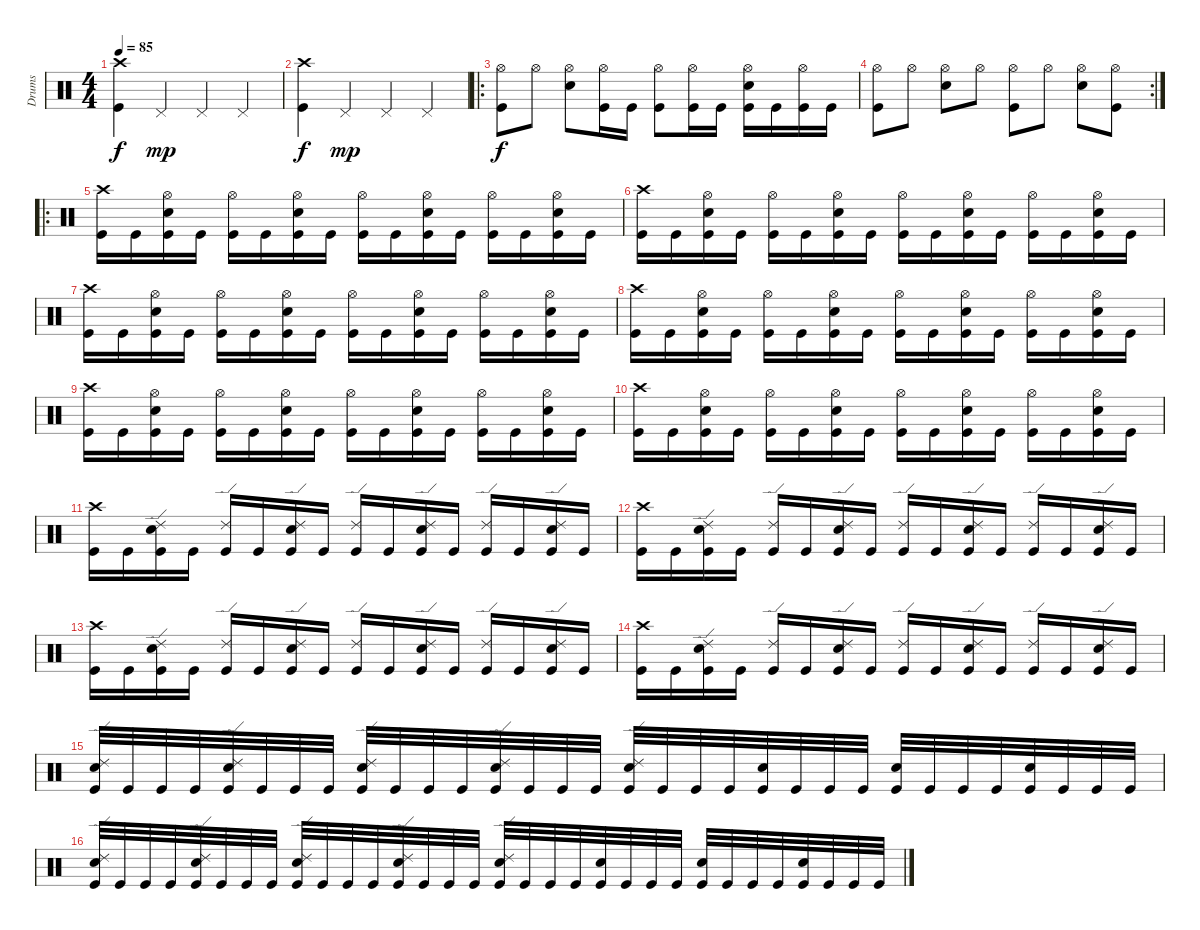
\track ("Drums" "Drums") {instrument percussion}
\staff {score}
\articulation defaults
\ts (4 4)
\tempo 85
\clef neutral
\ks c
("Crash high (hit)" "Kick (hit)").4{dy f} "Pedal Hi-Hat (hit)".4{dy mp} "Pedal Hi-Hat (hit)".4 "Pedal Hi-Hat (hit)".4 |
("Crash high (hit)" "Kick (hit)").4{dy f} "Pedal Hi-Hat (hit)".4{dy mp} "Pedal Hi-Hat (hit)".4 "Pedal Hi-Hat (hit)".4 |
\ro
("Hi-Hat (open)" "Kick (hit)").8{dy f} "Hi-Hat (open)".8 ("Hi-Hat (open)" "Snare (hit) 2").8 ("Hi-Hat (open)" "Kick (hit)").16 "Kick (hit)".16 ("Hi-Hat (open)" "Kick (hit)").8 ("Hi-Hat (open)" "Kick (hit)").16 "Kick (hit)".16 ("Hi-Hat (open)" "Snare (hit) 2" "Kick (hit)").16 "Kick (hit)".16 ("Hi-Hat (open)" "Kick (hit)").16 "Kick (hit)".16 |
\rc 2
("Hi-Hat (open)" "Kick (hit)").8 "Hi-Hat (open)".8 ("Hi-Hat (open)" "Snare (hit) 2").8 "Hi-Hat (open)".8 ("Hi-Hat (open)" "Kick (hit)").8 "Hi-Hat (open)".8 ("Hi-Hat (open)" "Snare (hit) 2").8 ("Hi-Hat (open)" "Kick (hit)").8 |
\ro
("Crash high (hit)" "Kick (hit)").16 "Kick (hit)".16 ("Hi-Hat (open)" "Snare (hit) 2" "Kick (hit)").16 "Kick (hit)".16 ("Hi-Hat (open)" "Kick (hit)").16 "Kick (hit)".16 ("Hi-Hat (open)" "Snare (hit) 2" "Kick (hit)").16 "Kick (hit)".16 ("Hi-Hat (open)" "Kick (hit)").16 "Kick (hit)".16 ("Hi-Hat (open)" "Snare (hit) 2" "Kick (hit)").16 "Kick (hit)".16 ("Hi-Hat (open)" "Kick (hit)").16 "Kick (hit)".16 ("Hi-Hat (open)" "Snare (hit) 2" "Kick (hit)").16 "Kick (hit)".16 |
("Crash high (hit)" "Kick (hit)").16 "Kick (hit)".16 ("Hi-Hat (open)" "Snare (hit) 2" "Kick (hit)").16 "Kick (hit)".16 ("Hi-Hat (open)" "Kick (hit)").16 "Kick (hit)".16 ("Hi-Hat (open)" "Snare (hit) 2" "Kick (hit)").16 "Kick (hit)".16 ("Hi-Hat (open)" "Kick (hit)").16 "Kick (hit)".16 ("Hi-Hat (open)" "Snare (hit) 2" "Kick (hit)").16 "Kick (hit)".16 ("Hi-Hat (open)" "Kick (hit)").16 "Kick (hit)".16 ("Hi-Hat (open)" "Snare (hit) 2" "Kick (hit)").16 "Kick (hit)".16 |
("Crash high (hit)" "Kick (hit)").16 "Kick (hit)".16 ("Hi-Hat (open)" "Snare (hit) 2" "Kick (hit)").16 "Kick (hit)".16 ("Hi-Hat (open)" "Kick (hit)").16 "Kick (hit)".16 ("Hi-Hat (open)" "Snare (hit) 2" "Kick (hit)").16 "Kick (hit)".16 ("Hi-Hat (open)" "Kick (hit)").16 "Kick (hit)".16 ("Hi-Hat (open)" "Snare (hit) 2" "Kick (hit)").16 "Kick (hit)".16 ("Hi-Hat (open)" "Kick (hit)").16 "Kick (hit)".16 ("Hi-Hat (open)" "Snare (hit) 2" "Kick (hit)").16 "Kick (hit)".16 |
("Crash high (hit)" "Kick (hit)").16 "Kick (hit)".16 ("Hi-Hat (open)" "Snare (hit) 2" "Kick (hit)").16 "Kick (hit)".16 ("Hi-Hat (open)" "Kick (hit)").16 "Kick (hit)".16 ("Hi-Hat (open)" "Snare (hit) 2" "Kick (hit)").16 "Kick (hit)".16 ("Hi-Hat (open)" "Kick (hit)").16 "Kick (hit)".16 ("Hi-Hat (open)" "Snare (hit) 2" "Kick (hit)").16 "Kick (hit)".16 ("Hi-Hat (open)" "Kick (hit)").16 "Kick (hit)".16 ("Hi-Hat (open)" "Snare (hit) 2" "Kick (hit)").16 "Kick (hit)".16 |
("Crash high (hit)" "Kick (hit)").16 "Kick (hit)".16 ("Hi-Hat (open)" "Snare (hit) 2" "Kick (hit)").16 "Kick (hit)".16 ("Hi-Hat (open)" "Kick (hit)").16 "Kick (hit)".16 ("Hi-Hat (open)" "Snare (hit) 2" "Kick (hit)").16 "Kick (hit)".16 ("Hi-Hat (open)" "Kick (hit)").16 "Kick (hit)".16 ("Hi-Hat (open)" "Snare (hit) 2" "Kick (hit)").16 "Kick (hit)".16 ("Hi-Hat (open)" "Kick (hit)").16 "Kick (hit)".16 ("Hi-Hat (open)" "Snare (hit) 2" "Kick (hit)").16 "Kick (hit)".16 |
("Crash high (hit)" "Kick (hit)").16 "Kick (hit)".16 ("Hi-Hat (open)" "Snare (hit) 2" "Kick (hit)").16 "Kick (hit)".16 ("Hi-Hat (open)" "Kick (hit)").16 "Kick (hit)".16 ("Hi-Hat (open)" "Snare (hit) 2" "Kick (hit)").16 "Kick (hit)".16 ("Hi-Hat (open)" "Kick (hit)").16 "Kick (hit)".16 ("Hi-Hat (open)" "Snare (hit) 2" "Kick (hit)").16 "Kick (hit)".16 ("Hi-Hat (open)" "Kick (hit)").16 "Kick (hit)".16 ("Hi-Hat (open)" "Snare (hit) 2" "Kick (hit)").16 "Kick (hit)".16 |
("Crash high (hit)" "Kick (hit)").16 "Kick (hit)".16 ("Ride (edge) 2" "Snare (hit) 2" "Kick (hit)").16 "Kick (hit)".16 ("Ride (edge) 2" "Kick (hit)").16 "Kick (hit)".16 ("Ride (edge) 2" "Snare (hit) 2" "Kick (hit)").16 "Kick (hit)".16 ("Ride (edge) 2" "Kick (hit)").16 "Kick (hit)".16 ("Ride (edge) 2" "Snare (hit) 2" "Kick (hit)").16 "Kick (hit)".16 ("Ride (edge) 2" "Kick (hit)").16 "Kick (hit)".16 ("Ride (edge) 2" "Snare (hit) 2" "Kick (hit)").16 "Kick (hit)".16 |
("Crash high (hit)" "Kick (hit)").16 "Kick (hit)".16 ("Ride (edge) 2" "Snare (hit) 2" "Kick (hit)").16 "Kick (hit)".16 ("Ride (edge) 2" "Kick (hit)").16 "Kick (hit)".16 ("Ride (edge) 2" "Snare (hit) 2" "Kick (hit)").16 "Kick (hit)".16 ("Ride (edge) 2" "Kick (hit)").16 "Kick (hit)".16 ("Ride (edge) 2" "Snare (hit) 2" "Kick (hit)").16 "Kick (hit)".16 ("Ride (edge) 2" "Kick (hit)").16 "Kick (hit)".16 ("Ride (edge) 2" "Snare (hit) 2" "Kick (hit)").16 "Kick (hit)".16 |
("Crash high (hit)" "Kick (hit)").16 "Kick (hit)".16 ("Ride (edge) 2" "Snare (hit) 2" "Kick (hit)").16 "Kick (hit)".16 ("Ride (edge) 2" "Kick (hit)").16 "Kick (hit)".16 ("Ride (edge) 2" "Snare (hit) 2" "Kick (hit)").16 "Kick (hit)".16 ("Ride (edge) 2" "Kick (hit)").16 "Kick (hit)".16 ("Ride (edge) 2" "Snare (hit) 2" "Kick (hit)").16 "Kick (hit)".16 ("Ride (edge) 2" "Kick (hit)").16 "Kick (hit)".16 ("Ride (edge) 2" "Snare (hit) 2" "Kick (hit)").16 "Kick (hit)".16 |
("Crash high (hit)" "Kick (hit)").16 "Kick (hit)".16 ("Ride (edge) 2" "Snare (hit) 2" "Kick (hit)").16 "Kick (hit)".16 ("Ride (edge) 2" "Kick (hit)").16 "Kick (hit)".16 ("Ride (edge) 2" "Snare (hit) 2" "Kick (hit)").16 "Kick (hit)".16 ("Ride (edge) 2" "Kick (hit)").16 "Kick (hit)".16 ("Ride (edge) 2" "Snare (hit) 2" "Kick (hit)").16 "Kick (hit)".16 ("Ride (edge) 2" "Kick (hit)").16 "Kick (hit)".16 ("Ride (edge) 2" "Snare (hit) 2" "Kick (hit)").16 "Kick (hit)".16 |
("Ride (edge) 2" "Snare (hit) 2" "Kick (hit)").32 "Kick (hit)".32 "Kick (hit)".32 "Kick (hit)".32 ("Ride (edge) 2" "Snare (hit) 2" "Kick (hit)").32 "Kick (hit)".32 "Kick (hit)".32 "Kick (hit)".32 ("Ride (edge) 2" "Snare (hit) 2" "Kick (hit)").32 "Kick (hit)".32 "Kick (hit)".32 "Kick (hit)".32 ("Ride (edge) 2" "Snare (hit) 2" "Kick (hit)").32 "Kick (hit)".32 "Kick (hit)".32 "Kick (hit)".32 ("Ride (edge) 2" "Snare (hit) 2" "Kick (hit)").32 "Kick (hit)".32 "Kick (hit)".32 "Kick (hit)".32 ("Snare (hit) 2" "Kick (hit)").32 "Kick (hit)".32 "Kick (hit)".32 "Kick (hit)".32 ("Snare (hit) 2" "Kick (hit)").32 "Kick (hit)".32 "Kick (hit)".32 "Kick (hit)".32 ("Snare (hit) 2" "Kick (hit)").32 "Kick (hit)".32 "Kick (hit)".32 "Kick (hit)".32 |
("Ride (edge) 2" "Snare (hit) 2" "Kick (hit)").32 "Kick (hit)".32 "Kick (hit)".32 "Kick (hit)".32 ("Ride (edge) 2" "Snare (hit) 2" "Kick (hit)").32 "Kick (hit)".32 "Kick (hit)".32 "Kick (hit)".32 ("Ride (edge) 2" "Snare (hit) 2" "Kick (hit)").32 "Kick (hit)".32 "Kick (hit)".32 "Kick (hit)".32 ("Ride (edge) 2" "Snare (hit) 2" "Kick (hit)").32 "Kick (hit)".32 "Kick (hit)".32 "Kick (hit)".32 ("Ride (edge) 2" "Snare (hit) 2" "Kick (hit)").32 "Kick (hit)".32 "Kick (hit)".32 "Kick (hit)".32 ("Snare (hit) 2" "Kick (hit)").32 "Kick (hit)".32 "Kick (hit)".32 "Kick (hit)".32 ("Snare (hit) 2" "Kick (hit)").32 "Kick (hit)".32 "Kick (hit)".32 "Kick (hit)".32 ("Snare (hit) 2" "Kick (hit)").32 "Kick (hit)".32 "Kick (hit)".32 "Kick (hit)".32
